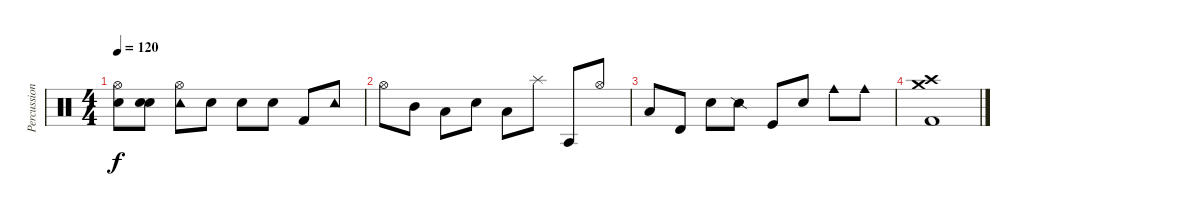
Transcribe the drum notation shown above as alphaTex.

\track ("Percussion" "Percussion") {instrument percussion}
\staff {score}
\articulation defaults
\ts (4 4)
\tempo 120
\clef neutral
\ks c
("Hi-Hat (open)" "Snare (hit)").8{dy f} ("Snare (hit)" "Snare (hit)").8 ("Hi-Hat (open)" "Tambourine (hit)").8 "Snare (hit) 2".8 "Snare (hit) 2".8 "Snare (hit) 2".8 "Kick (hit) 2".8 "Tambourine (hit)".8 |
"Hi-Hat (open)".8 "Mid Tom (hit)".8 "Low Tom (hit)".8 "Snare (hit)".8 "Low Tom (hit)".8 "Splash (hit)".8 "Agogo tow (hit)".8 "Hi-Hat (open)".8 |
"Low Tom (hit)".8 "Timbale high (hit)".8 "Snare (hit)".8 "Snare (side stick) 2".8 "Kick (hit)".8 "Snare (hit) 2".8 "Cowbell medium (hit)".8 "Cowbell medium (hit)".8 |
("Crash high (hit)" "Crash medium (hit)" "Kick (hit) 2").1
